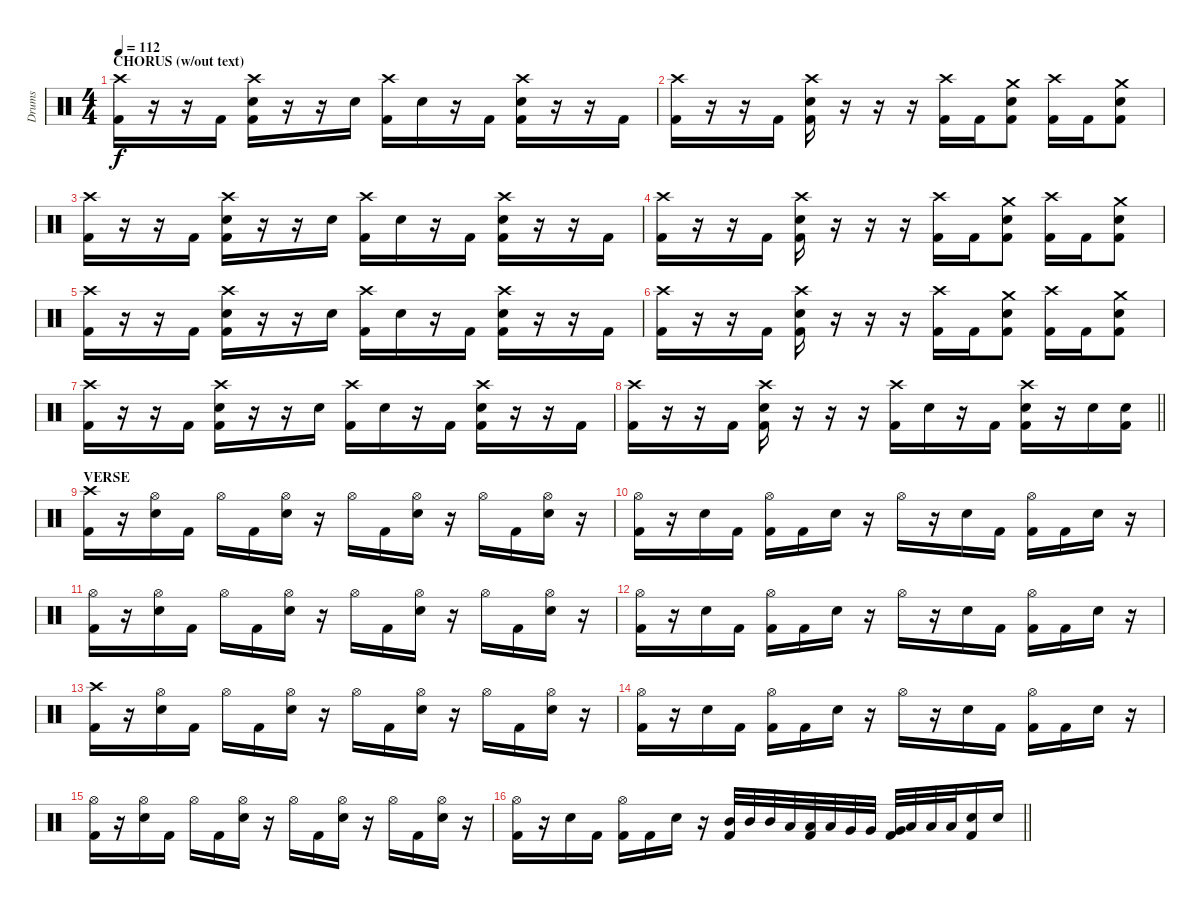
\track ("Drums" "Drums") {instrument percussion}
\staff
\articulation defaults
\ts (4 4)
\section ("" "CHORUS (w/out text)")
\tempo 112
\clef neutral
\ks c
("Crash high (hit)" "Kick (hit) 2").16{dy f} r.16 r.16 "Kick (hit) 2".16 ("Crash high (hit)" "Snare (hit) 2" "Kick (hit) 2").16 r.16 r.16 "Snare (hit) 2".16 ("Crash high (hit)" "Kick (hit) 2").16 "Snare (hit) 2".16 r.16 "Kick (hit) 2".16 ("Crash high (hit)" "Snare (hit) 2" "Kick (hit) 2").16 r.16 r.16 "Kick (hit) 2".16 |
("Crash high (hit)" "Kick (hit) 2").16 r.16 r.16 "Kick (hit) 2".16 ("Crash high (hit)" "Snare (hit) 2" "Kick (hit) 2").16 r.16 r.16 r.16 ("Crash high (hit)" "Kick (hit) 2").16 "Kick (hit) 2".16 ("Crash medium (hit)" "Snare (hit) 2" "Kick (hit) 2").8 ("Crash high (hit)" "Kick (hit) 2").16 "Kick (hit) 2".16 ("Crash medium (hit)" "Snare (hit) 2" "Kick (hit) 2").8 |
("Crash high (hit)" "Kick (hit) 2").16 r.16 r.16 "Kick (hit) 2".16 ("Crash high (hit)" "Snare (hit) 2" "Kick (hit) 2").16 r.16 r.16 "Snare (hit) 2".16 ("Crash high (hit)" "Kick (hit) 2").16 "Snare (hit) 2".16 r.16 "Kick (hit) 2".16 ("Crash high (hit)" "Snare (hit) 2" "Kick (hit) 2").16 r.16 r.16 "Kick (hit) 2".16 |
("Crash high (hit)" "Kick (hit) 2").16 r.16 r.16 "Kick (hit) 2".16 ("Crash high (hit)" "Snare (hit) 2" "Kick (hit) 2").16 r.16 r.16 r.16 ("Crash high (hit)" "Kick (hit) 2").16 "Kick (hit) 2".16 ("Crash medium (hit)" "Snare (hit) 2" "Kick (hit) 2").8 ("Crash high (hit)" "Kick (hit) 2").16 "Kick (hit) 2".16 ("Crash medium (hit)" "Snare (hit) 2" "Kick (hit) 2").8 |
("Crash high (hit)" "Kick (hit) 2").16 r.16 r.16 "Kick (hit) 2".16 ("Crash high (hit)" "Snare (hit) 2" "Kick (hit) 2").16 r.16 r.16 "Snare (hit) 2".16 ("Crash high (hit)" "Kick (hit) 2").16 "Snare (hit) 2".16 r.16 "Kick (hit) 2".16 ("Crash high (hit)" "Snare (hit) 2" "Kick (hit) 2").16 r.16 r.16 "Kick (hit) 2".16 |
("Crash high (hit)" "Kick (hit) 2").16 r.16 r.16 "Kick (hit) 2".16 ("Crash high (hit)" "Snare (hit) 2" "Kick (hit) 2").16 r.16 r.16 r.16 ("Crash high (hit)" "Kick (hit) 2").16 "Kick (hit) 2".16 ("Crash medium (hit)" "Snare (hit) 2" "Kick (hit) 2").8 ("Crash high (hit)" "Kick (hit) 2").16 "Kick (hit) 2".16 ("Crash medium (hit)" "Snare (hit) 2" "Kick (hit) 2").8 |
("Crash high (hit)" "Kick (hit) 2").16 r.16 r.16 "Kick (hit) 2".16 ("Crash high (hit)" "Snare (hit) 2" "Kick (hit) 2").16 r.16 r.16 "Snare (hit) 2".16 ("Crash high (hit)" "Kick (hit) 2").16 "Snare (hit) 2".16 r.16 "Kick (hit) 2".16 ("Crash high (hit)" "Snare (hit) 2" "Kick (hit) 2").16 r.16 r.16 "Kick (hit) 2".16 |
\barLineRight lightlight
("Crash high (hit)" "Kick (hit) 2").16 r.16 r.16 "Kick (hit) 2".16 ("Crash high (hit)" "Snare (hit) 2" "Kick (hit) 2").16 r.16 r.16 r.16 ("Crash high (hit)" "Kick (hit) 2").16 "Snare (hit) 2".16 r.16 "Kick (hit) 2".16 ("Crash high (hit)" "Snare (hit) 2" "Kick (hit) 2").16 r.16 "Snare (hit) 2".16 ("Snare (hit) 2" "Kick (hit) 2").16 |
\section ("" "VERSE")
("Crash high (hit)" "Kick (hit) 2").16 r.16 ("Hi-Hat (open)" "Snare (hit) 2").16 "Kick (hit) 2".16 "Hi-Hat (open)".16 "Kick (hit) 2".16 ("Hi-Hat (open)" "Snare (hit) 2").16 r.16 "Hi-Hat (open)".16 "Kick (hit) 2".16 ("Hi-Hat (open)" "Snare (hit) 2").16 r.16 "Hi-Hat (open)".16 "Kick (hit) 2".16 ("Hi-Hat (open)" "Snare (hit) 2").16 r.16 |
("Hi-Hat (open)" "Kick (hit) 2").16 r.16 "Snare (hit) 2".16 "Kick (hit) 2".16 ("Hi-Hat (open)" "Kick (hit) 2").16 "Kick (hit) 2".16 "Snare (hit) 2".16 r.16 "Hi-Hat (open)".16 r.16 "Snare (hit) 2".16 "Kick (hit) 2".16 ("Hi-Hat (open)" "Kick (hit) 2").16 "Kick (hit) 2".16 "Snare (hit) 2".16 r.16 |
("Hi-Hat (open)" "Kick (hit) 2").16 r.16 ("Hi-Hat (open)" "Snare (hit) 2").16 "Kick (hit) 2".16 "Hi-Hat (open)".16 "Kick (hit) 2".16 ("Hi-Hat (open)" "Snare (hit) 2").16 r.16 "Hi-Hat (open)".16 "Kick (hit) 2".16 ("Hi-Hat (open)" "Snare (hit) 2").16 r.16 "Hi-Hat (open)".16 "Kick (hit) 2".16 ("Hi-Hat (open)" "Snare (hit) 2").16 r.16 |
("Hi-Hat (open)" "Kick (hit) 2").16 r.16 "Snare (hit) 2".16 "Kick (hit) 2".16 ("Hi-Hat (open)" "Kick (hit) 2").16 "Kick (hit) 2".16 "Snare (hit) 2".16 r.16 "Hi-Hat (open)".16 r.16 "Snare (hit) 2".16 "Kick (hit) 2".16 ("Hi-Hat (open)" "Kick (hit) 2").16 "Kick (hit) 2".16 "Snare (hit) 2".16 r.16 |
("Crash high (hit)" "Kick (hit) 2").16 r.16 ("Hi-Hat (open)" "Snare (hit) 2").16 "Kick (hit) 2".16 "Hi-Hat (open)".16 "Kick (hit) 2".16 ("Hi-Hat (open)" "Snare (hit) 2").16 r.16 "Hi-Hat (open)".16 "Kick (hit) 2".16 ("Hi-Hat (open)" "Snare (hit) 2").16 r.16 "Hi-Hat (open)".16 "Kick (hit) 2".16 ("Hi-Hat (open)" "Snare (hit) 2").16 r.16 |
("Hi-Hat (open)" "Kick (hit) 2").16 r.16 "Snare (hit) 2".16 "Kick (hit) 2".16 ("Hi-Hat (open)" "Kick (hit) 2").16 "Kick (hit) 2".16 "Snare (hit) 2".16 r.16 "Hi-Hat (open)".16 r.16 "Snare (hit) 2".16 "Kick (hit) 2".16 ("Hi-Hat (open)" "Kick (hit) 2").16 "Kick (hit) 2".16 "Snare (hit) 2".16 r.16 |
("Hi-Hat (open)" "Kick (hit) 2").16 r.16 ("Hi-Hat (open)" "Snare (hit) 2").16 "Kick (hit) 2".16 "Hi-Hat (open)".16 "Kick (hit) 2".16 ("Hi-Hat (open)" "Snare (hit) 2").16 r.16 "Hi-Hat (open)".16 "Kick (hit) 2".16 ("Hi-Hat (open)" "Snare (hit) 2").16 r.16 "Hi-Hat (open)".16 "Kick (hit) 2".16 ("Hi-Hat (open)" "Snare (hit) 2").16 r.16 |
\barLineRight lightlight
("Hi-Hat (open)" "Kick (hit) 2").16 r.16 "Snare (hit) 2".16 "Kick (hit) 2".16 ("Hi-Hat (open)" "Kick (hit) 2").16 "Kick (hit) 2".16 "Snare (hit) 2".16 r.16 ("Mid Tom (hit)" "Kick (hit) 2").32 "Mid Tom (hit)".32 "Mid Tom (hit)".32 "Low Tom (hit)".32 ("Low Tom (hit)" "Kick (hit) 2").32 "Low Tom (hit)".32 "Very Low Tom (hit)".32 "Very Low Tom (hit)".32 ("Very Low Tom (hit)" "Kick (hit) 2").32 "Low Floor Tom (hit)".32 "Low Floor Tom (hit)".32 "Low Floor Tom (hit)".32 ("Snare (hit) 2" "Kick (hit) 2").16 "Snare (hit) 2".16
